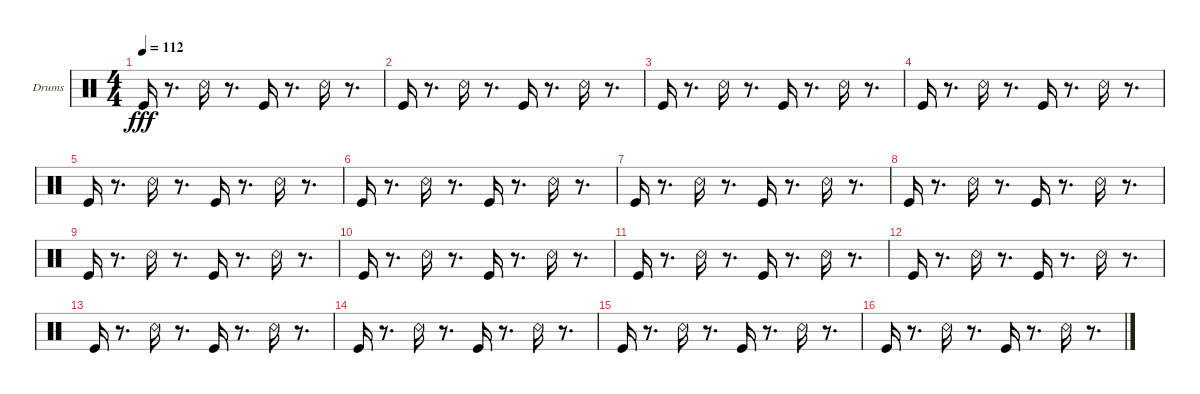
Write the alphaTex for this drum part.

\bracketExtendMode groupsimilarinstruments
\firstSystemTrackNameOrientation horizontal
\otherSystemsTrackNameOrientation horizontal
\track ("drams" "Drums") {instrument percussion}
\staff {score}
\articulation defaults
\ts (4 4)
\tempo 112
\clef neutral
\ks c "Kick (hit)".16{dy fff}
r.8{d} "Snare (rim shot)".16 r.8{d} "Kick (hit)".16 r.8{d} "Snare (rim shot)".16 r.8{d} |
"Kick (hit)".16 r.8{d} "Snare (rim shot)".16 r.8{d} "Kick (hit)".16 r.8{d} "Snare (rim shot)".16 r.8{d} |
"Kick (hit)".16 r.8{d} "Snare (rim shot)".16 r.8{d} "Kick (hit)".16 r.8{d} "Snare (rim shot)".16 r.8{d} |
"Kick (hit)".16 r.8{d} "Snare (rim shot)".16 r.8{d} "Kick (hit)".16 r.8{d} "Snare (rim shot)".16 r.8{d} |
"Kick (hit)".16 r.8{d} "Snare (rim shot)".16 r.8{d} "Kick (hit)".16 r.8{d} "Snare (rim shot)".16 r.8{d} |
"Kick (hit)".16 r.8{d} "Snare (rim shot)".16 r.8{d} "Kick (hit)".16 r.8{d} "Snare (rim shot)".16 r.8{d} |
"Kick (hit)".16 r.8{d} "Snare (rim shot)".16 r.8{d} "Kick (hit)".16 r.8{d} "Snare (rim shot)".16 r.8{d} |
"Kick (hit)".16 r.8{d} "Snare (rim shot)".16 r.8{d} "Kick (hit)".16 r.8{d} "Snare (rim shot)".16 r.8{d} |
"Kick (hit)".16 r.8{d} "Snare (rim shot)".16 r.8{d} "Kick (hit)".16 r.8{d} "Snare (rim shot)".16 r.8{d} |
"Kick (hit)".16 r.8{d} "Snare (rim shot)".16 r.8{d} "Kick (hit)".16 r.8{d} "Snare (rim shot)".16 r.8{d} |
"Kick (hit)".16 r.8{d} "Snare (rim shot)".16 r.8{d} "Kick (hit)".16 r.8{d} "Snare (rim shot)".16 r.8{d} |
"Kick (hit)".16 r.8{d} "Snare (rim shot)".16 r.8{d} "Kick (hit)".16 r.8{d} "Snare (rim shot)".16 r.8{d} |
"Kick (hit)".16 r.8{d} "Snare (rim shot)".16 r.8{d} "Kick (hit)".16 r.8{d} "Snare (rim shot)".16 r.8{d} |
"Kick (hit)".16 r.8{d} "Snare (rim shot)".16 r.8{d} "Kick (hit)".16 r.8{d} "Snare (rim shot)".16 r.8{d} |
"Kick (hit)".16 r.8{d} "Snare (rim shot)".16 r.8{d} "Kick (hit)".16 r.8{d} "Snare (rim shot)".16 r.8{d} |
"Kick (hit)".16 r.8{d} "Snare (rim shot)".16 r.8{d} "Kick (hit)".16 r.8{d} "Snare (rim shot)".16 r.8{d}
